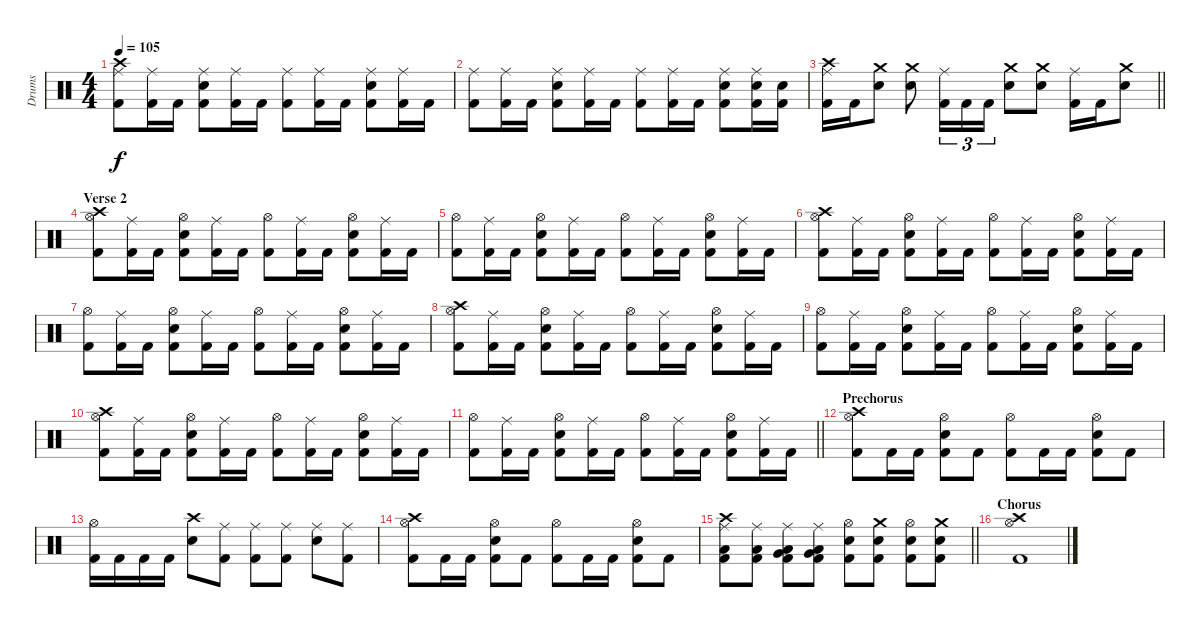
\track ("Drums" "Drums") {instrument percussion}
\staff {score}
\articulation defaults
\ts (4 4)
\tempo 105
\clef neutral
\ks c
("Crash high (hit)" "Ride (middle)" "Kick (hit) 2").8{dy f} ("Ride (middle)" "Kick (hit) 2").16 "Kick (hit) 2".16 ("Ride (middle)" "Snare (hit) 2" "Kick (hit) 2").8 ("Ride (middle)" "Kick (hit) 2").16 "Kick (hit) 2".16 ("Ride (middle)" "Kick (hit) 2").8 ("Ride (middle)" "Kick (hit) 2").16 "Kick (hit) 2".16 ("Ride (middle)" "Snare (hit) 2" "Kick (hit) 2").8 ("Ride (middle)" "Kick (hit) 2").16 "Kick (hit) 2".16 |
("Ride (middle)" "Kick (hit) 2").8 ("Ride (middle)" "Kick (hit) 2").16 "Kick (hit) 2".16 ("Ride (middle)" "Snare (hit) 2" "Kick (hit) 2").8 ("Ride (middle)" "Kick (hit) 2").16 "Kick (hit) 2".16 ("Ride (middle)" "Kick (hit) 2").8 ("Ride (middle)" "Kick (hit) 2").16 "Kick (hit) 2".16 ("Ride (middle)" "Snare (hit) 2" "Kick (hit) 2").8 ("Ride (middle)" "Snare (hit) 2" "Kick (hit) 2").16 ("Snare (hit) 2" "Kick (hit) 2").16 |
\barLineRight lightlight
("Crash high (hit)" "Ride (middle)" "Kick (hit) 2").16 "Kick (hit) 2".16 ("Crash medium (hit)" "Snare (hit) 2").8 ("Crash medium (hit)" "Snare (hit) 2").8 ("Ride (middle)" "Kick (hit) 2").16{tu (3 2)} "Kick (hit) 2".16{tu (3 2)} "Kick (hit) 2".16{tu (3 2)} ("Crash medium (hit)" "Snare (hit) 2").8 ("Crash medium (hit)" "Snare (hit) 2").8 ("Ride (middle)" "Kick (hit) 2").16 "Kick (hit) 2".16 ("Crash medium (hit)" "Snare (hit) 2").8 |
\section ("" "Verse 2")
("Crash high (hit)" "Hi-Hat (open)" "Kick (hit) 2").8 ("Ride (middle)" "Kick (hit) 2").16 "Kick (hit) 2".16 ("Hi-Hat (open)" "Snare (hit) 2" "Kick (hit) 2").8 ("Ride (middle)" "Kick (hit) 2").16 "Kick (hit) 2".16 ("Hi-Hat (open)" "Kick (hit) 2").8 ("Ride (middle)" "Kick (hit) 2").16 "Kick (hit) 2".16 ("Hi-Hat (open)" "Snare (hit) 2" "Kick (hit) 2").8 ("Ride (middle)" "Kick (hit) 2").16 "Kick (hit) 2".16 |
("Hi-Hat (open)" "Kick (hit) 2").8 ("Ride (middle)" "Kick (hit) 2").16 "Kick (hit) 2".16 ("Hi-Hat (open)" "Snare (hit) 2" "Kick (hit) 2").8 ("Ride (middle)" "Kick (hit) 2").16 "Kick (hit) 2".16 ("Hi-Hat (open)" "Kick (hit) 2").8 ("Ride (middle)" "Kick (hit) 2").16 "Kick (hit) 2".16 ("Hi-Hat (open)" "Snare (hit) 2" "Kick (hit) 2").8 ("Ride (middle)" "Kick (hit) 2").16 "Kick (hit) 2".16 |
("Crash high (hit)" "Hi-Hat (open)" "Kick (hit) 2").8 ("Ride (middle)" "Kick (hit) 2").16 "Kick (hit) 2".16 ("Hi-Hat (open)" "Snare (hit) 2" "Kick (hit) 2").8 ("Ride (middle)" "Kick (hit) 2").16 "Kick (hit) 2".16 ("Hi-Hat (open)" "Kick (hit) 2").8 ("Ride (middle)" "Kick (hit) 2").16 "Kick (hit) 2".16 ("Hi-Hat (open)" "Snare (hit) 2" "Kick (hit) 2").8 ("Ride (middle)" "Kick (hit) 2").16 "Kick (hit) 2".16 |
("Hi-Hat (open)" "Kick (hit) 2").8 ("Ride (middle)" "Kick (hit) 2").16 "Kick (hit) 2".16 ("Hi-Hat (open)" "Snare (hit) 2" "Kick (hit) 2").8 ("Ride (middle)" "Kick (hit) 2").16 "Kick (hit) 2".16 ("Hi-Hat (open)" "Kick (hit) 2").8 ("Ride (middle)" "Kick (hit) 2").16 "Kick (hit) 2".16 ("Hi-Hat (open)" "Snare (hit) 2" "Kick (hit) 2").8 ("Ride (middle)" "Kick (hit) 2").16 "Kick (hit) 2".16 |
("Crash high (hit)" "Hi-Hat (open)" "Kick (hit) 2").8 ("Ride (middle)" "Kick (hit) 2").16 "Kick (hit) 2".16 ("Hi-Hat (open)" "Snare (hit) 2" "Kick (hit) 2").8 ("Ride (middle)" "Kick (hit) 2").16 "Kick (hit) 2".16 ("Hi-Hat (open)" "Kick (hit) 2").8 ("Ride (middle)" "Kick (hit) 2").16 "Kick (hit) 2".16 ("Hi-Hat (open)" "Snare (hit) 2" "Kick (hit) 2").8 ("Ride (middle)" "Kick (hit) 2").16 "Kick (hit) 2".16 |
("Hi-Hat (open)" "Kick (hit) 2").8 ("Ride (middle)" "Kick (hit) 2").16 "Kick (hit) 2".16 ("Hi-Hat (open)" "Snare (hit) 2" "Kick (hit) 2").8 ("Ride (middle)" "Kick (hit) 2").16 "Kick (hit) 2".16 ("Hi-Hat (open)" "Kick (hit) 2").8 ("Ride (middle)" "Kick (hit) 2").16 "Kick (hit) 2".16 ("Hi-Hat (open)" "Snare (hit) 2" "Kick (hit) 2").8 ("Ride (middle)" "Kick (hit) 2").16 "Kick (hit) 2".16 |
("Crash high (hit)" "Hi-Hat (open)" "Kick (hit) 2").8 ("Ride (middle)" "Kick (hit) 2").16 "Kick (hit) 2".16 ("Hi-Hat (open)" "Snare (hit) 2" "Kick (hit) 2").8 ("Ride (middle)" "Kick (hit) 2").16 "Kick (hit) 2".16 ("Hi-Hat (open)" "Kick (hit) 2").8 ("Ride (middle)" "Kick (hit) 2").16 "Kick (hit) 2".16 ("Hi-Hat (open)" "Snare (hit) 2" "Kick (hit) 2").8 ("Ride (middle)" "Kick (hit) 2").16 "Kick (hit) 2".16 |
\barLineRight lightlight
("Hi-Hat (open)" "Kick (hit) 2").8 ("Ride (middle)" "Kick (hit) 2").16 "Kick (hit) 2".16 ("Hi-Hat (open)" "Snare (hit) 2" "Kick (hit) 2").8 ("Ride (middle)" "Kick (hit) 2").16 "Kick (hit) 2".16 ("Hi-Hat (open)" "Kick (hit) 2").8 ("Ride (middle)" "Kick (hit) 2").16 "Kick (hit) 2".16 ("Hi-Hat (open)" "Snare (hit) 2" "Kick (hit) 2").8 ("Ride (middle)" "Kick (hit) 2").16 "Kick (hit) 2".16 |
\section ("" "Prechorus")
("Crash high (hit)" "Hi-Hat (open)" "Kick (hit) 2").8 "Kick (hit) 2".16 "Kick (hit) 2".16 ("Hi-Hat (open)" "Snare (hit) 2" "Kick (hit) 2").8 "Kick (hit) 2".8 ("Hi-Hat (open)" "Kick (hit) 2").8 "Kick (hit) 2".16 "Kick (hit) 2".16 ("Hi-Hat (open)" "Snare (hit) 2" "Kick (hit) 2").8 "Kick (hit) 2".8 |
("Hi-Hat (open)" "Kick (hit) 2").16 "Kick (hit) 2".16 "Kick (hit) 2".16 "Kick (hit) 2".16 ("Crash high (hit)" "Snare (hit) 2").8 ("Ride (middle)" "Kick (hit) 2").8 ("Ride (middle)" "Kick (hit) 2").8 ("Ride (middle)" "Kick (hit) 2").8 ("Ride (middle)" "Snare (hit) 2").8 ("Ride (middle)" "Kick (hit) 2").8 |
("Crash high (hit)" "Hi-Hat (open)" "Kick (hit) 2").8 "Kick (hit) 2".16 "Kick (hit) 2".16 ("Hi-Hat (open)" "Snare (hit) 2" "Kick (hit) 2").8 "Kick (hit) 2".8 ("Hi-Hat (open)" "Kick (hit) 2").8 "Kick (hit) 2".16 "Kick (hit) 2".16 ("Hi-Hat (open)" "Snare (hit) 2" "Kick (hit) 2").8 "Kick (hit) 2".8 |
\barLineRight lightlight
("Crash high (hit)" "Ride (middle)" "Low Floor Tom (hit)" "Kick (hit) 2").8 ("Ride (middle)" "Low Floor Tom (hit)" "Kick (hit) 2").8 ("Ride (middle)" "Very Low Tom (hit)" "Low Floor Tom (hit)" "Kick (hit) 2").8 ("Ride (middle)" "Very Low Tom (hit)" "Low Floor Tom (hit)" "Kick (hit) 2").8 ("Hi-Hat (open)" "Snare (hit) 2" "Kick (hit) 2").8 ("Crash medium (hit)" "Snare (hit) 2" "Kick (hit) 2").8 ("Hi-Hat (open)" "Snare (hit) 2" "Kick (hit) 2").8 ("Crash medium (hit)" "Snare (hit) 2" "Kick (hit) 2").8 |
\section ("" "Chorus")
("Crash high (hit)" "Hi-Hat (open)" "Kick (hit) 2").1
